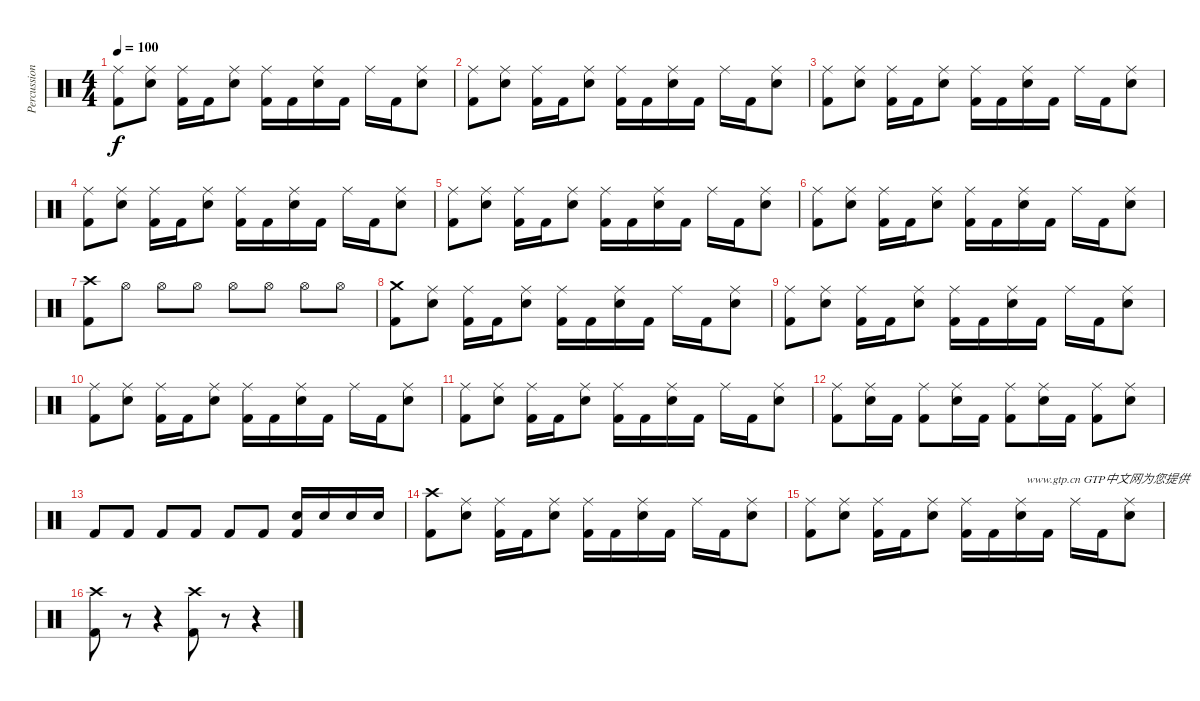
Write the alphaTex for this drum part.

\track ("Percussion" "Percussion") {instrument percussion}
\staff {score}
\articulation defaults
\ts (4 4)
\tempo 100
\clef neutral
\ks c
("Ride (middle)" "Kick (hit) 2").8{dy f} ("Ride (middle)" "Electric Snare (hit)").8 ("Ride (middle)" "Kick (hit) 2").16 "Kick (hit) 2".16 ("Ride (middle)" "Electric Snare (hit)").8 ("Ride (middle)" "Kick (hit) 2").16 "Kick (hit) 2".16 ("Ride (middle)" "Electric Snare (hit)").16 "Kick (hit) 2".16 "Ride (middle)".16 "Kick (hit) 2".16 ("Ride (middle)" "Electric Snare (hit)").8 |
("Ride (middle)" "Kick (hit) 2").8 ("Ride (middle)" "Electric Snare (hit)").8 ("Ride (middle)" "Kick (hit) 2").16 "Kick (hit) 2".16 ("Ride (middle)" "Electric Snare (hit)").8 ("Ride (middle)" "Kick (hit) 2").16 "Kick (hit) 2".16 ("Ride (middle)" "Electric Snare (hit)").16 "Kick (hit) 2".16 "Ride (middle)".16 "Kick (hit) 2".16 ("Ride (middle)" "Electric Snare (hit)").8 |
("Ride (middle)" "Kick (hit) 2").8 ("Ride (middle)" "Electric Snare (hit)").8 ("Ride (middle)" "Kick (hit) 2").16 "Kick (hit) 2".16 ("Ride (middle)" "Electric Snare (hit)").8 ("Ride (middle)" "Kick (hit) 2").16 "Kick (hit) 2".16 ("Ride (middle)" "Electric Snare (hit)").16 "Kick (hit) 2".16 "Ride (middle)".16 "Kick (hit) 2".16 ("Ride (middle)" "Electric Snare (hit)").8 |
("Ride (middle)" "Kick (hit) 2").8 ("Ride (middle)" "Electric Snare (hit)").8 ("Ride (middle)" "Kick (hit) 2").16 "Kick (hit) 2".16 ("Ride (middle)" "Electric Snare (hit)").8 ("Ride (middle)" "Kick (hit) 2").16 "Kick (hit) 2".16 ("Ride (middle)" "Electric Snare (hit)").16 "Kick (hit) 2".16 "Ride (middle)".16 "Kick (hit) 2".16 ("Ride (middle)" "Electric Snare (hit)").8 |
("Ride (middle)" "Kick (hit) 2").8 ("Ride (middle)" "Electric Snare (hit)").8 ("Ride (middle)" "Kick (hit) 2").16 "Kick (hit) 2".16 ("Ride (middle)" "Electric Snare (hit)").8 ("Ride (middle)" "Kick (hit) 2").16 "Kick (hit) 2".16 ("Ride (middle)" "Electric Snare (hit)").16 "Kick (hit) 2".16 "Ride (middle)".16 "Kick (hit) 2".16 ("Ride (middle)" "Electric Snare (hit)").8 |
("Ride (middle)" "Kick (hit) 2").8 ("Ride (middle)" "Electric Snare (hit)").8 ("Ride (middle)" "Kick (hit) 2").16 "Kick (hit) 2".16 ("Ride (middle)" "Electric Snare (hit)").8 ("Ride (middle)" "Kick (hit) 2").16 "Kick (hit) 2".16 ("Ride (middle)" "Electric Snare (hit)").16 "Kick (hit) 2".16 "Ride (middle)".16 "Kick (hit) 2".16 ("Ride (middle)" "Electric Snare (hit)").8 |
("Crash high (hit)" "Kick (hit) 2").8 "Hi-Hat (open)".8 "Hi-Hat (open)".8 "Hi-Hat (open)".8 "Hi-Hat (open)".8 "Hi-Hat (open)".8 "Hi-Hat (open)".8 "Hi-Hat (open)".8 |
("Crash medium (hit)" "Kick (hit) 2").8 ("Ride (middle)" "Electric Snare (hit)").8 ("Ride (middle)" "Kick (hit) 2").16 "Kick (hit) 2".16 ("Ride (middle)" "Electric Snare (hit)").8 ("Ride (middle)" "Kick (hit) 2").16 "Kick (hit) 2".16 ("Ride (middle)" "Electric Snare (hit)").16 "Kick (hit) 2".16 "Ride (middle)".16 "Kick (hit) 2".16 ("Ride (middle)" "Electric Snare (hit)").8 |
("Ride (middle)" "Kick (hit) 2").8 ("Ride (middle)" "Electric Snare (hit)").8 ("Ride (middle)" "Kick (hit) 2").16 "Kick (hit) 2".16 ("Ride (middle)" "Electric Snare (hit)").8 ("Ride (middle)" "Kick (hit) 2").16 "Kick (hit) 2".16 ("Ride (middle)" "Electric Snare (hit)").16 "Kick (hit) 2".16 "Ride (middle)".16 "Kick (hit) 2".16 ("Ride (middle)" "Electric Snare (hit)").8 |
("Ride (middle)" "Kick (hit) 2").8 ("Ride (middle)" "Electric Snare (hit)").8 ("Ride (middle)" "Kick (hit) 2").16 "Kick (hit) 2".16 ("Ride (middle)" "Electric Snare (hit)").8 ("Ride (middle)" "Kick (hit) 2").16 "Kick (hit) 2".16 ("Ride (middle)" "Electric Snare (hit)").16 "Kick (hit) 2".16 "Ride (middle)".16 "Kick (hit) 2".16 ("Ride (middle)" "Electric Snare (hit)").8 |
("Ride (middle)" "Kick (hit) 2").8 ("Ride (middle)" "Electric Snare (hit)").8 ("Ride (middle)" "Kick (hit) 2").16 "Kick (hit) 2".16 ("Ride (middle)" "Electric Snare (hit)").8 ("Ride (middle)" "Kick (hit) 2").16 "Kick (hit) 2".16 ("Ride (middle)" "Electric Snare (hit)").16 "Kick (hit) 2".16 "Ride (middle)".16 "Kick (hit) 2".16 ("Ride (middle)" "Electric Snare (hit)").8 |
("Ride (middle)" "Kick (hit) 2").8 ("Ride (middle)" "Electric Snare (hit)").16 "Kick (hit) 2".16 ("Ride (middle)" "Kick (hit) 2").8 ("Ride (middle)" "Electric Snare (hit)").16 "Kick (hit) 2".16 ("Ride (middle)" "Kick (hit) 2").8 ("Ride (middle)" "Electric Snare (hit)").16 "Kick (hit) 2".16 ("Ride (middle)" "Kick (hit) 2").8 ("Ride (middle)" "Electric Snare (hit)").8 |
"Kick (hit) 2".8 "Kick (hit) 2".8 "Kick (hit) 2".8 "Kick (hit) 2".8 "Kick (hit) 2".8 "Kick (hit) 2".8 ("Electric Snare (hit)" "Kick (hit) 2").16 "Electric Snare (hit)".16 "Electric Snare (hit)".16 "Electric Snare (hit)".16 |
("Crash high (hit)" "Kick (hit) 2").8 ("Ride (middle)" "Electric Snare (hit)").8 ("Ride (middle)" "Kick (hit) 2").16 "Kick (hit) 2".16 ("Ride (middle)" "Electric Snare (hit)").8 ("Ride (middle)" "Kick (hit) 2").16 "Kick (hit) 2".16 ("Ride (middle)" "Electric Snare (hit)").16 "Kick (hit) 2".16 "Ride (middle)".16 "Kick (hit) 2".16 ("Ride (middle)" "Electric Snare (hit)").8 |
("Ride (middle)" "Kick (hit) 2").8 ("Ride (middle)" "Electric Snare (hit)").8 ("Ride (middle)" "Kick (hit) 2").16 "Kick (hit) 2".16 ("Ride (middle)" "Electric Snare (hit)").8 ("Ride (middle)" "Kick (hit) 2").16{txt "                    www.gtp.cn GTP中文网为您提供"} "Kick (hit) 2".16 ("Ride (middle)" "Electric Snare (hit)").16 "Kick (hit) 2".16 "Ride (middle)".16 "Kick (hit) 2".16 ("Ride (middle)" "Electric Snare (hit)").8 |
("Crash high (hit)" "Kick (hit) 2").8 r.8{volume 0} r.4 ("Crash high (hit)" "Kick (hit) 2").8{volume 13} r.8{volume 0} r.4
